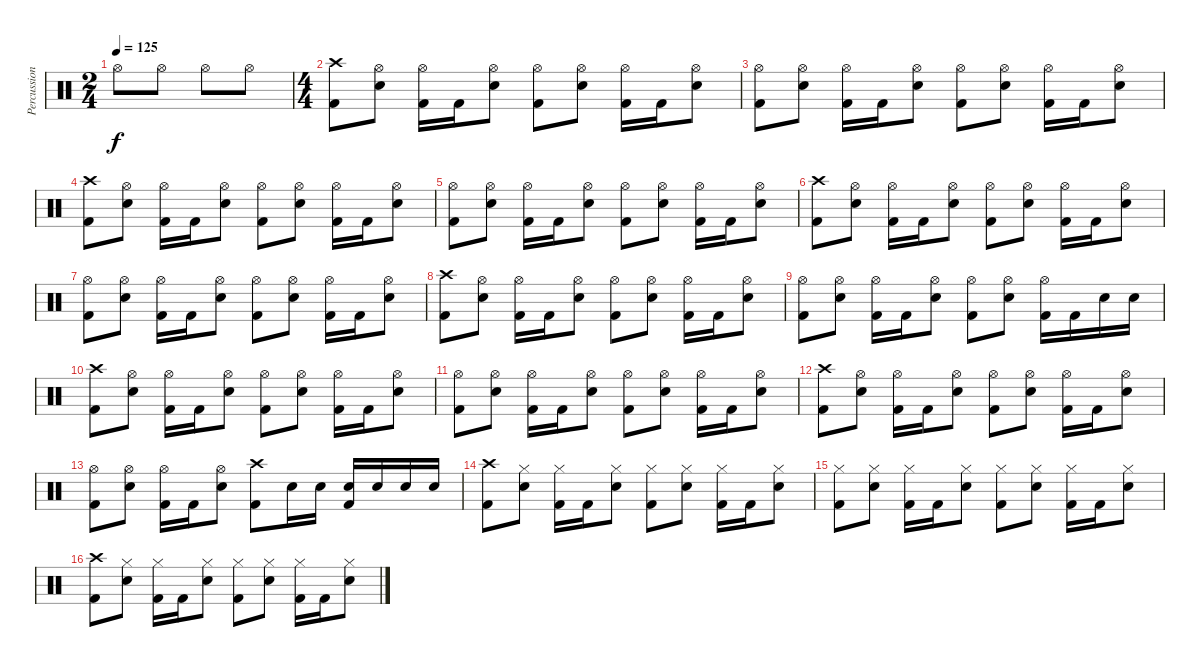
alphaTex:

\track ("Percussion" "Percussion") {instrument percussion}
\staff {score}
\articulation defaults
\ts (2 4)
\tempo 125
\clef neutral
\ks c "Hi-Hat (open)".8{dy f} "Hi-Hat (open)".8 "Hi-Hat (open)".8 "Hi-Hat (open)".8
|
\ts (4 4)
("Crash high (hit)" "Kick (hit) 2").8 ("Hi-Hat (open)" "Electric Snare (hit)").8 ("Hi-Hat (open)" "Kick (hit) 2").16 "Kick (hit) 2".16 ("Hi-Hat (open)" "Electric Snare (hit)").8 ("Hi-Hat (open)" "Kick (hit) 2").8 ("Hi-Hat (open)" "Electric Snare (hit)").8 ("Hi-Hat (open)" "Kick (hit) 2").16 "Kick (hit) 2".16 ("Hi-Hat (open)" "Electric Snare (hit)").8 |
("Hi-Hat (open)" "Kick (hit) 2").8 ("Hi-Hat (open)" "Electric Snare (hit)").8 ("Hi-Hat (open)" "Kick (hit) 2").16 "Kick (hit) 2".16 ("Hi-Hat (open)" "Electric Snare (hit)").8 ("Hi-Hat (open)" "Kick (hit) 2").8 ("Hi-Hat (open)" "Electric Snare (hit)").8 ("Hi-Hat (open)" "Kick (hit) 2").16 "Kick (hit) 2".16 ("Hi-Hat (open)" "Electric Snare (hit)").8 |
("Crash high (hit)" "Kick (hit) 2").8 ("Hi-Hat (open)" "Electric Snare (hit)").8 ("Hi-Hat (open)" "Kick (hit) 2").16 "Kick (hit) 2".16 ("Hi-Hat (open)" "Electric Snare (hit)").8 ("Hi-Hat (open)" "Kick (hit) 2").8 ("Hi-Hat (open)" "Electric Snare (hit)").8 ("Hi-Hat (open)" "Kick (hit) 2").16 "Kick (hit) 2".16 ("Hi-Hat (open)" "Electric Snare (hit)").8 |
("Hi-Hat (open)" "Kick (hit) 2").8 ("Hi-Hat (open)" "Electric Snare (hit)").8 ("Hi-Hat (open)" "Kick (hit) 2").16 "Kick (hit) 2".16 ("Hi-Hat (open)" "Electric Snare (hit)").8 ("Hi-Hat (open)" "Kick (hit) 2").8 ("Hi-Hat (open)" "Electric Snare (hit)").8 ("Hi-Hat (open)" "Kick (hit) 2").16 "Kick (hit) 2".16 ("Hi-Hat (open)" "Electric Snare (hit)").8 |
("Crash high (hit)" "Kick (hit) 2").8 ("Hi-Hat (open)" "Electric Snare (hit)").8 ("Hi-Hat (open)" "Kick (hit) 2").16 "Kick (hit) 2".16 ("Hi-Hat (open)" "Electric Snare (hit)").8 ("Hi-Hat (open)" "Kick (hit) 2").8 ("Hi-Hat (open)" "Electric Snare (hit)").8 ("Hi-Hat (open)" "Kick (hit) 2").16 "Kick (hit) 2".16 ("Hi-Hat (open)" "Electric Snare (hit)").8 |
("Hi-Hat (open)" "Kick (hit) 2").8 ("Hi-Hat (open)" "Electric Snare (hit)").8 ("Hi-Hat (open)" "Kick (hit) 2").16 "Kick (hit) 2".16 ("Hi-Hat (open)" "Electric Snare (hit)").8 ("Hi-Hat (open)" "Kick (hit) 2").8 ("Hi-Hat (open)" "Electric Snare (hit)").8 ("Hi-Hat (open)" "Kick (hit) 2").16 "Kick (hit) 2".16 ("Hi-Hat (open)" "Electric Snare (hit)").8 |
("Crash high (hit)" "Kick (hit) 2").8 ("Hi-Hat (open)" "Electric Snare (hit)").8 ("Hi-Hat (open)" "Kick (hit) 2").16 "Kick (hit) 2".16 ("Hi-Hat (open)" "Electric Snare (hit)").8 ("Hi-Hat (open)" "Kick (hit) 2").8 ("Hi-Hat (open)" "Electric Snare (hit)").8 ("Hi-Hat (open)" "Kick (hit) 2").16 "Kick (hit) 2".16 ("Hi-Hat (open)" "Electric Snare (hit)").8 |
("Hi-Hat (open)" "Kick (hit) 2").8 ("Hi-Hat (open)" "Electric Snare (hit)").8 ("Hi-Hat (open)" "Kick (hit) 2").16 "Kick (hit) 2".16 ("Hi-Hat (open)" "Electric Snare (hit)").8 ("Hi-Hat (open)" "Kick (hit) 2").8 ("Hi-Hat (open)" "Electric Snare (hit)").8 ("Hi-Hat (open)" "Kick (hit) 2").16 "Kick (hit) 2".16 "Electric Snare (hit)".16 "Electric Snare (hit)".16 |
("Crash high (hit)" "Kick (hit) 2").8 ("Hi-Hat (open)" "Electric Snare (hit)").8 ("Hi-Hat (open)" "Kick (hit) 2").16 "Kick (hit) 2".16 ("Hi-Hat (open)" "Electric Snare (hit)").8 ("Hi-Hat (open)" "Kick (hit) 2").8 ("Hi-Hat (open)" "Electric Snare (hit)").8 ("Hi-Hat (open)" "Kick (hit) 2").16 "Kick (hit) 2".16 ("Hi-Hat (open)" "Electric Snare (hit)").8 |
("Hi-Hat (open)" "Kick (hit) 2").8 ("Hi-Hat (open)" "Electric Snare (hit)").8 ("Hi-Hat (open)" "Kick (hit) 2").16 "Kick (hit) 2".16 ("Hi-Hat (open)" "Electric Snare (hit)").8 ("Hi-Hat (open)" "Kick (hit) 2").8 ("Hi-Hat (open)" "Electric Snare (hit)").8 ("Hi-Hat (open)" "Kick (hit) 2").16 "Kick (hit) 2".16 ("Hi-Hat (open)" "Electric Snare (hit)").8 |
("Crash high (hit)" "Kick (hit) 2").8 ("Hi-Hat (open)" "Electric Snare (hit)").8 ("Hi-Hat (open)" "Kick (hit) 2").16 "Kick (hit) 2".16 ("Hi-Hat (open)" "Electric Snare (hit)").8 ("Hi-Hat (open)" "Kick (hit) 2").8 ("Hi-Hat (open)" "Electric Snare (hit)").8 ("Hi-Hat (open)" "Kick (hit) 2").16 "Kick (hit) 2".16 ("Hi-Hat (open)" "Electric Snare (hit)").8 |
("Hi-Hat (open)" "Kick (hit) 2").8 ("Hi-Hat (open)" "Electric Snare (hit)").8 ("Hi-Hat (open)" "Kick (hit) 2").16 "Kick (hit) 2".16 ("Hi-Hat (open)" "Electric Snare (hit)").8 ("Crash high (hit)" "Kick (hit) 2").8 "Electric Snare (hit)".16 "Electric Snare (hit)".16 ("Electric Snare (hit)" "Kick (hit) 2").16 "Electric Snare (hit)".16 "Electric Snare (hit)".16 "Electric Snare (hit)".16 |
("Crash high (hit)" "Kick (hit) 2").8 ("Hi-Hat (closed)" "Electric Snare (hit)").8 ("Hi-Hat (closed)" "Kick (hit) 2").16 "Kick (hit) 2".16 ("Hi-Hat (closed)" "Electric Snare (hit)").8 ("Hi-Hat (closed)" "Kick (hit) 2").8 ("Hi-Hat (closed)" "Electric Snare (hit)").8 ("Hi-Hat (closed)" "Kick (hit) 2").16 "Kick (hit) 2".16 ("Hi-Hat (closed)" "Electric Snare (hit)").8 |
("Hi-Hat (closed)" "Kick (hit) 2").8 ("Hi-Hat (closed)" "Electric Snare (hit)").8 ("Hi-Hat (closed)" "Kick (hit) 2").16 "Kick (hit) 2".16 ("Hi-Hat (closed)" "Electric Snare (hit)").8 ("Hi-Hat (closed)" "Kick (hit) 2").8 ("Hi-Hat (closed)" "Electric Snare (hit)").8 ("Hi-Hat (closed)" "Kick (hit) 2").16 "Kick (hit) 2".16 ("Hi-Hat (closed)" "Electric Snare (hit)").8 |
("Crash high (hit)" "Kick (hit) 2").8 ("Hi-Hat (closed)" "Electric Snare (hit)").8 ("Hi-Hat (closed)" "Kick (hit) 2").16 "Kick (hit) 2".16 ("Hi-Hat (closed)" "Electric Snare (hit)").8 ("Hi-Hat (closed)" "Kick (hit) 2").8 ("Hi-Hat (closed)" "Electric Snare (hit)").8 ("Hi-Hat (closed)" "Kick (hit) 2").16 "Kick (hit) 2".16 ("Hi-Hat (closed)" "Electric Snare (hit)").8
